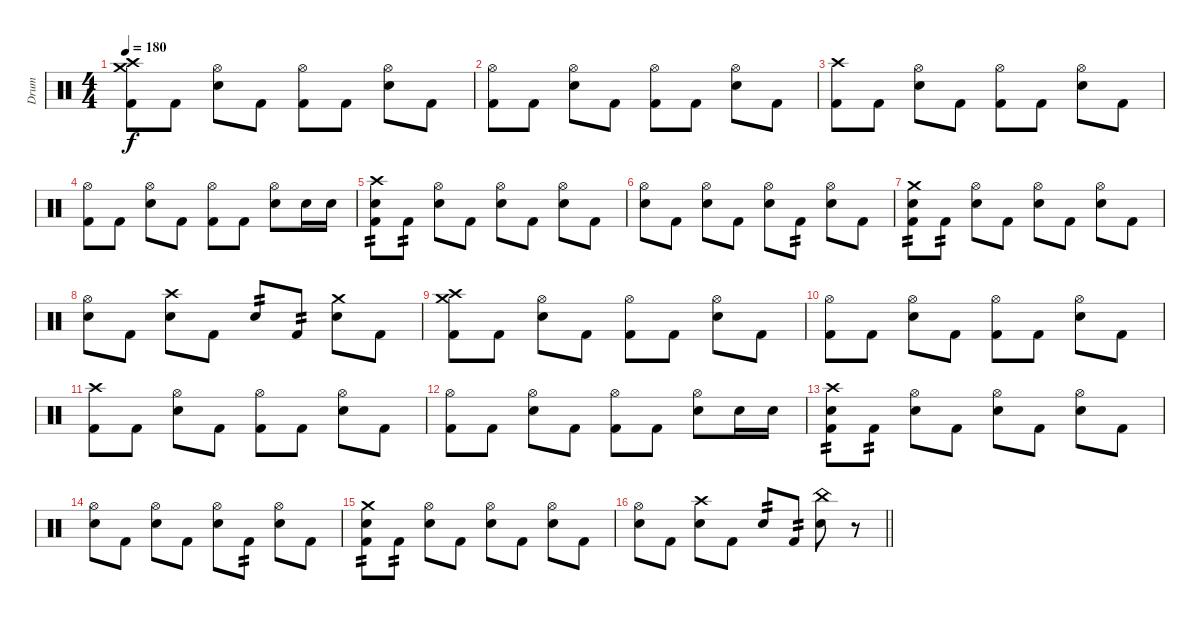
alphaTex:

\track ("Drum" "Drum") {instrument percussion}
\staff {score}
\articulation defaults
\ts (4 4)
\tempo 180
\clef neutral
\ks c
("Crash medium (hit)" "Crash high (hit)" "Kick (hit) 2").8{dy f} "Kick (hit) 2".8 ("Hi-Hat (open)" "Snare (hit) 2").8 "Kick (hit) 2".8 ("Hi-Hat (open)" "Kick (hit) 2").8 "Kick (hit) 2".8 ("Hi-Hat (open)" "Snare (hit) 2").8 "Kick (hit) 2".8 |
("Hi-Hat (open)" "Kick (hit) 2").8 "Kick (hit) 2".8 ("Hi-Hat (open)" "Snare (hit) 2").8 "Kick (hit) 2".8 ("Hi-Hat (open)" "Kick (hit) 2").8 "Kick (hit) 2".8 ("Hi-Hat (open)" "Snare (hit) 2").8 "Kick (hit) 2".8 |
("Crash high (hit)" "Kick (hit) 2").8 "Kick (hit) 2".8 ("Hi-Hat (open)" "Snare (hit) 2").8 "Kick (hit) 2".8 ("Hi-Hat (open)" "Kick (hit) 2").8 "Kick (hit) 2".8 ("Hi-Hat (open)" "Snare (hit) 2").8 "Kick (hit) 2".8 |
("Hi-Hat (open)" "Kick (hit) 2").8 "Kick (hit) 2".8 ("Hi-Hat (open)" "Snare (hit) 2").8 "Kick (hit) 2".8 ("Hi-Hat (open)" "Kick (hit) 2").8 "Kick (hit) 2".8 ("Hi-Hat (open)" "Snare (hit) 2").8 "Snare (hit) 2".16 "Snare (hit) 2".16 |
("Crash high (hit)" "Snare (hit) 2" "Kick (hit) 2").8{tp 2} "Kick (hit) 2".8{tp 2} ("Hi-Hat (open)" "Snare (hit) 2").8 "Kick (hit) 2".8 ("Hi-Hat (open)" "Snare (hit) 2").8 "Kick (hit) 2".8 ("Hi-Hat (open)" "Snare (hit) 2").8 "Kick (hit) 2".8 |
("Hi-Hat (open)" "Snare (hit) 2").8 "Kick (hit) 2".8 ("Hi-Hat (open)" "Snare (hit) 2").8 "Kick (hit) 2".8 ("Hi-Hat (open)" "Snare (hit) 2").8 "Kick (hit) 2".8{tp 2} ("Hi-Hat (open)" "Snare (hit) 2").8 "Kick (hit) 2".8 |
("Crash medium (hit)" "Snare (hit) 2" "Kick (hit) 2").8{tp 2} "Kick (hit) 2".8{tp 2} ("Hi-Hat (open)" "Snare (hit) 2").8 "Kick (hit) 2".8 ("Hi-Hat (open)" "Snare (hit) 2").8 "Kick (hit) 2".8 ("Hi-Hat (open)" "Snare (hit) 2").8 "Kick (hit) 2".8 |
("Hi-Hat (open)" "Snare (hit) 2").8 "Kick (hit) 2".8 ("Crash high (hit)" "Snare (hit) 2").8 "Kick (hit) 2".8 "Snare (hit) 2".8{tp 2} "Kick (hit) 2".8{tp 2} ("Crash medium (hit)" "Snare (hit) 2").8 "Kick (hit) 2".8 |
("Crash medium (hit)" "Crash high (hit)" "Kick (hit) 2").8 "Kick (hit) 2".8 ("Hi-Hat (open)" "Snare (hit) 2").8 "Kick (hit) 2".8 ("Hi-Hat (open)" "Kick (hit) 2").8 "Kick (hit) 2".8 ("Hi-Hat (open)" "Snare (hit) 2").8 "Kick (hit) 2".8 |
("Hi-Hat (open)" "Kick (hit) 2").8 "Kick (hit) 2".8 ("Hi-Hat (open)" "Snare (hit) 2").8 "Kick (hit) 2".8 ("Hi-Hat (open)" "Kick (hit) 2").8 "Kick (hit) 2".8 ("Hi-Hat (open)" "Snare (hit) 2").8 "Kick (hit) 2".8 |
("Crash high (hit)" "Kick (hit) 2").8 "Kick (hit) 2".8 ("Hi-Hat (open)" "Snare (hit) 2").8 "Kick (hit) 2".8 ("Hi-Hat (open)" "Kick (hit) 2").8 "Kick (hit) 2".8 ("Hi-Hat (open)" "Snare (hit) 2").8 "Kick (hit) 2".8 |
("Hi-Hat (open)" "Kick (hit) 2").8 "Kick (hit) 2".8 ("Hi-Hat (open)" "Snare (hit) 2").8 "Kick (hit) 2".8 ("Hi-Hat (open)" "Kick (hit) 2").8 "Kick (hit) 2".8 ("Hi-Hat (open)" "Snare (hit) 2").8 "Snare (hit) 2".16 "Snare (hit) 2".16 |
("Crash high (hit)" "Snare (hit) 2" "Kick (hit) 2").8{tp 2} "Kick (hit) 2".8{tp 2} ("Hi-Hat (open)" "Snare (hit) 2").8 "Kick (hit) 2".8 ("Hi-Hat (open)" "Snare (hit) 2").8 "Kick (hit) 2".8 ("Hi-Hat (open)" "Snare (hit) 2").8 "Kick (hit) 2".8 |
("Hi-Hat (open)" "Snare (hit) 2").8 "Kick (hit) 2".8 ("Hi-Hat (open)" "Snare (hit) 2").8 "Kick (hit) 2".8 ("Hi-Hat (open)" "Snare (hit) 2").8 "Kick (hit) 2".8{tp 2} ("Hi-Hat (open)" "Snare (hit) 2").8 "Kick (hit) 2".8 |
("Crash medium (hit)" "Snare (hit) 2" "Kick (hit) 2").8{tp 2} "Kick (hit) 2".8{tp 2} ("Hi-Hat (open)" "Snare (hit) 2").8 "Kick (hit) 2".8 ("Hi-Hat (open)" "Snare (hit) 2").8 "Kick (hit) 2".8 ("Hi-Hat (open)" "Snare (hit) 2").8 "Kick (hit) 2".8 |
\barLineRight lightlight
("Hi-Hat (open)" "Snare (hit) 2").8 "Kick (hit) 2".8 ("Crash high (hit)" "Snare (hit) 2").8 "Kick (hit) 2".8 "Snare (hit) 2".8{tp 2} "Kick (hit) 2".8{tp 2} ("China (hit)" "Snare (hit) 2").8 r.8
